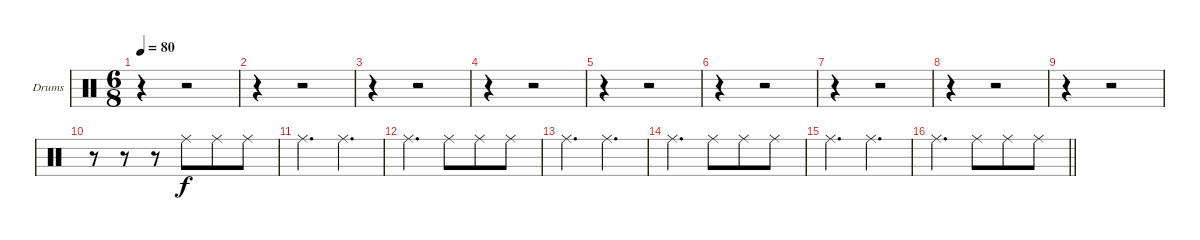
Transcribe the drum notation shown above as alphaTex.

\bracketExtendMode groupsimilarinstruments
\firstSystemTrackNameOrientation horizontal
\otherSystemsTrackNameOrientation horizontal
\track ("Drumkit" "Drums") {instrument percussion}
\staff {score}
\articulation defaults
\ts (6 8)
\tempo 80
\clef neutral
\ks c
r.4{dy f} r.2 |
r.4 r.2 |
r.4 r.2 |
r.4 r.2 |
r.4 r.2 |
r.4 r.2 |
r.4 r.2 |
r.4 r.2 |
r.4 r.2 |
r.8 r.8 r.8 "Ride (middle)".8 "Ride (middle)".8 "Ride (middle)".8 |
"Ride (middle)".4{d} "Ride (middle)".4{d} |
"Ride (middle)".4{d} "Ride (middle)".8 "Ride (middle)".8 "Ride (middle)".8 |
"Ride (middle)".4{d} "Ride (middle)".4{d} |
"Ride (middle)".4{d} "Ride (middle)".8 "Ride (middle)".8 "Ride (middle)".8 |
"Ride (middle)".4{d} "Ride (middle)".4{d} |
\barLineRight lightlight "Ride (middle)".4{d} "Ride (middle)".8 "Ride (middle)".8 "Ride (middle)".8
